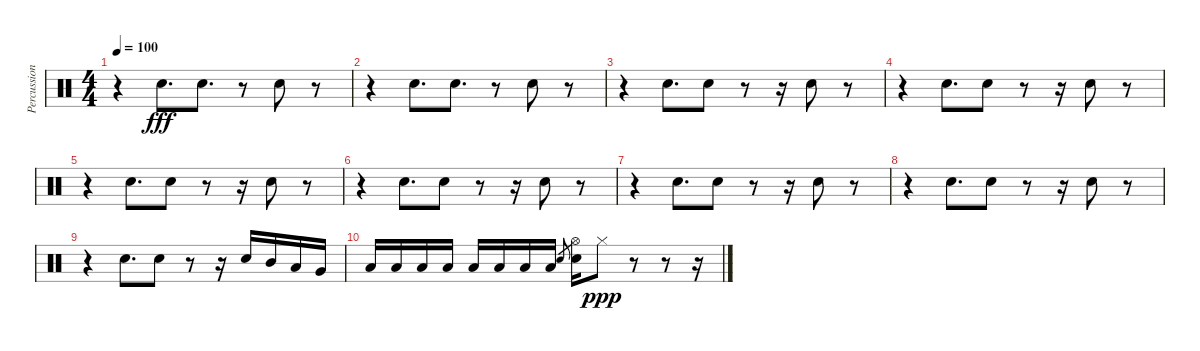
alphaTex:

\track ("Percussion" "Percussion") {instrument percussion}
\staff {score}
\articulation defaults
\ts (4 4)
\tempo 100
\clef neutral
\ks c
r.4{dy fff} "Snare (hit) 2".8{d} "Snare (hit) 2".8{d} r.8 "Snare (hit) 2".8 r.8 |
r.4 "Snare (hit) 2".8{d} "Snare (hit) 2".8{d} r.8 "Snare (hit) 2".8 r.8 |
r.4 "Snare (hit) 2".8{d} "Snare (hit) 2".8 r.8 r.16 "Snare (hit) 2".8 r.8 |
r.4 "Snare (hit) 2".8{d} "Snare (hit) 2".8 r.8 r.16 "Snare (hit) 2".8 r.8 |
r.4 "Snare (hit) 2".8{d} "Snare (hit) 2".8 r.8 r.16 "Snare (hit) 2".8 r.8 |
r.4 "Snare (hit) 2".8{d} "Snare (hit) 2".8 r.8 r.16 "Snare (hit) 2".8 r.8 |
r.4 "Snare (hit) 2".8{d} "Snare (hit) 2".8 r.8 r.16 "Snare (hit) 2".8 r.8 |
r.4 "Snare (hit) 2".8{d} "Snare (hit) 2".8 r.8 r.16 "Snare (hit) 2".8 r.8 |
r.4 "Snare (hit) 2".8{d} "Snare (hit) 2".8 r.8 r.16 "Snare (hit) 2".16 "Mid Tom (hit)".16 "Low Tom (hit)".16 "Very Low Tom (hit)".16 |
"Low Floor Tom (hit)".16 "Low Floor Tom (hit)".16 "Low Floor Tom (hit)".16 "Low Floor Tom (hit)".16 "Low Floor Tom (hit)".16 "Low Floor Tom (hit)".16 "Low Floor Tom (hit)".16 "Low Floor Tom (hit)".16 "Snare (hit) 2".8{gr} ("Hi-Hat (open)" "Snare (hit) 2").16 "Hi-Hat (closed)".8{dy ppp} r.8 r.8 r.16
